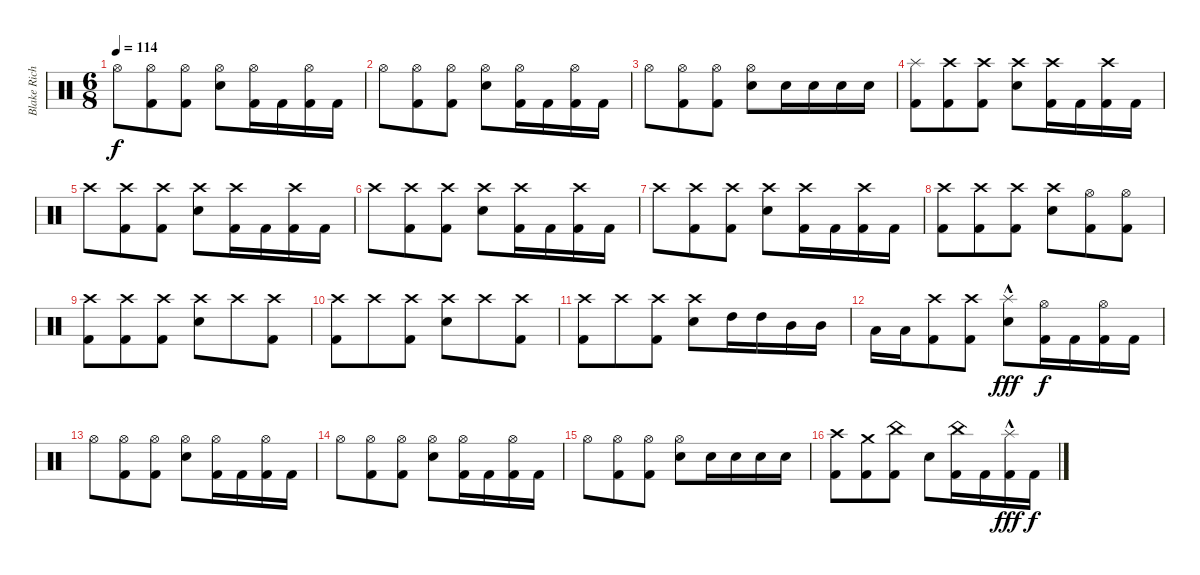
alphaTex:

\track ("Blake Richardson" "Blake Rich") {instrument percussion}
\staff {score}
\articulation defaults
\ts (6 8)
\tempo 114
\clef neutral
\ks c "Hi-Hat (open)".8{dy f}
("Hi-Hat (open)" "Kick (hit) 2").8 ("Hi-Hat (open)" "Kick (hit) 2").8 ("Hi-Hat (open)" "Electric Snare (hit)").8 ("Hi-Hat (open)" "Kick (hit) 2").16 "Kick (hit) 2".16 ("Hi-Hat (open)" "Kick (hit) 2").16 "Kick (hit) 2".16 |
"Hi-Hat (open)".8 ("Hi-Hat (open)" "Kick (hit) 2").8 ("Hi-Hat (open)" "Kick (hit) 2").8 ("Hi-Hat (open)" "Electric Snare (hit)").8 ("Hi-Hat (open)" "Kick (hit) 2").16 "Kick (hit) 2".16 ("Hi-Hat (open)" "Kick (hit) 2").16 "Kick (hit) 2".16 |
"Hi-Hat (open)".8 ("Hi-Hat (open)" "Kick (hit) 2").8 ("Hi-Hat (open)" "Kick (hit) 2").8 ("Hi-Hat (open)" "Electric Snare (hit)").8 "Electric Snare (hit)".16 "Electric Snare (hit)".16 "Electric Snare (hit)".16 "Electric Snare (hit)".16 |
("Splash (hit)" "Kick (hit) 2").8 ("Crash high (hit)" "Kick (hit) 2").8 ("Crash high (hit)" "Kick (hit) 2").8 ("Crash high (hit)" "Electric Snare (hit)").8 ("Crash high (hit)" "Kick (hit) 2").16 "Kick (hit) 2".16 ("Crash high (hit)" "Kick (hit) 2").16 "Kick (hit) 2".16 |
"Crash high (hit)".8 ("Crash high (hit)" "Kick (hit) 2").8 ("Crash high (hit)" "Kick (hit) 2").8 ("Crash high (hit)" "Electric Snare (hit)").8 ("Crash high (hit)" "Kick (hit) 2").16 "Kick (hit) 2".16 ("Crash high (hit)" "Kick (hit) 2").16 "Kick (hit) 2".16 |
"Crash high (hit)".8 ("Crash high (hit)" "Kick (hit) 2").8 ("Crash high (hit)" "Kick (hit) 2").8 ("Crash high (hit)" "Electric Snare (hit)").8 ("Crash high (hit)" "Kick (hit) 2").16 "Kick (hit) 2".16 ("Crash high (hit)" "Kick (hit) 2").16 "Kick (hit) 2".16 |
"Crash high (hit)".8 ("Crash high (hit)" "Kick (hit) 2").8 ("Crash high (hit)" "Kick (hit) 2").8 ("Crash high (hit)" "Electric Snare (hit)").8 ("Crash high (hit)" "Kick (hit) 2").16 "Kick (hit) 2".16 ("Crash high (hit)" "Kick (hit) 2").16 "Kick (hit) 2".16 |
("Crash high (hit)" "Kick (hit) 2").8 ("Crash high (hit)" "Kick (hit) 2").8 ("Crash high (hit)" "Kick (hit) 2").8 ("Crash high (hit)" "Electric Snare (hit)").8 ("Hi-Hat (open)" "Kick (hit) 2").8 ("Hi-Hat (open)" "Kick (hit) 2").8 |
("Crash high (hit)" "Kick (hit) 2").8 ("Crash high (hit)" "Kick (hit) 2").8 ("Crash high (hit)" "Kick (hit) 2").8 ("Crash high (hit)" "Electric Snare (hit)").8 "Crash high (hit)".8 ("Crash high (hit)" "Kick (hit) 2").8 |
("Crash high (hit)" "Kick (hit) 2").8 "Crash high (hit)".8 ("Crash high (hit)" "Kick (hit) 2").8 ("Crash high (hit)" "Electric Snare (hit)").8 "Crash high (hit)".8 ("Crash high (hit)" "Kick (hit) 2").8 |
("Crash high (hit)" "Kick (hit) 2").8 "Crash high (hit)".8 ("Crash high (hit)" "Kick (hit) 2").8 ("Crash high (hit)" "Electric Snare (hit)").8 "High Tom (hit)".16 "High Tom (hit)".16 "Mid Tom (hit)".16 "Mid Tom (hit)".16 |
"Low Tom (hit)".16 "Low Tom (hit)".16 ("Crash high (hit)" "Kick (hit) 2").8 ("Crash high (hit)" "Kick (hit) 2").8 ("Splash (hit)"{hac} "Electric Snare (hit)").8{dy fff} ("Hi-Hat (open)" "Kick (hit) 2").16{dy f} "Kick (hit) 2".16 ("Hi-Hat (open)" "Kick (hit) 2").16 "Kick (hit) 2".16 |
"Hi-Hat (open)".8 ("Hi-Hat (open)" "Kick (hit) 2").8 ("Hi-Hat (open)" "Kick (hit) 2").8 ("Hi-Hat (open)" "Electric Snare (hit)").8 ("Hi-Hat (open)" "Kick (hit) 2").16 "Kick (hit) 2".16 ("Hi-Hat (open)" "Kick (hit) 2").16 "Kick (hit) 2".16 |
"Hi-Hat (open)".8 ("Hi-Hat (open)" "Kick (hit) 2").8 ("Hi-Hat (open)" "Kick (hit) 2").8 ("Hi-Hat (open)" "Electric Snare (hit)").8 ("Hi-Hat (open)" "Kick (hit) 2").16 "Kick (hit) 2".16 ("Hi-Hat (open)" "Kick (hit) 2").16 "Kick (hit) 2".16 |
"Hi-Hat (open)".8 ("Hi-Hat (open)" "Kick (hit) 2").8 ("Hi-Hat (open)" "Kick (hit) 2").8 ("Hi-Hat (open)" "Electric Snare (hit)").8 "Electric Snare (hit)".16 "Electric Snare (hit)".16 "Electric Snare (hit)".16 "Electric Snare (hit)".16 |
("Crash high (hit)" "Kick (hit) 2").8 ("Crash medium (hit)" "Kick (hit) 2").8 ("China (hit)" "Kick (hit) 2").8 "Electric Snare (hit)".8 ("China (hit)" "Kick (hit) 2").16 "Kick (hit) 2".16 ("Splash (hit)"{hac} "Kick (hit) 2").16{dy fff} "Kick (hit) 2".16{dy f}
